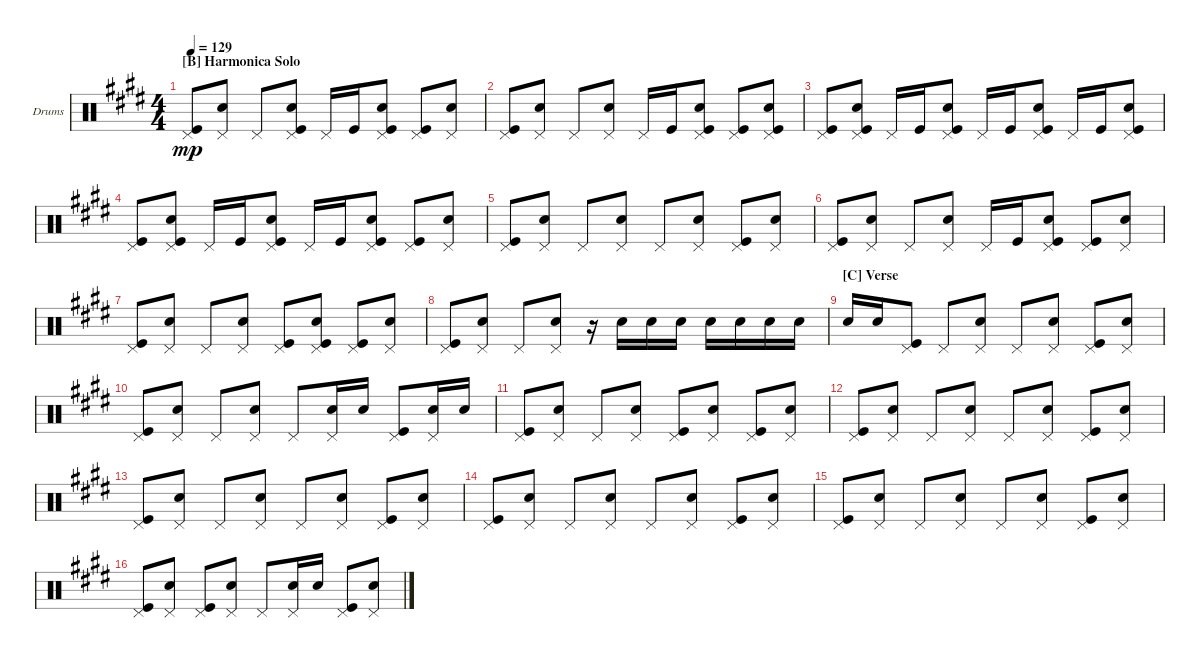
\defaultSystemsLayout 4
\bracketExtendMode groupsimilarinstruments
\firstSystemTrackNameOrientation horizontal
\otherSystemsTrackNameOrientation horizontal
\chordDiagramsInScore
\track ("Drumkit" "Drums") {instrument percussion}
\staff {score}
\articulation defaults
\ts (4 4)
\section ("B" "Harmonica Solo")
\tempo 129
\clef neutral
\ks c#minor
("Kick (hit)" "Pedal Hi-Hat (hit)").8{dy mp} ("Pedal Hi-Hat (hit)" "Snare (hit) 2").8 "Pedal Hi-Hat (hit)".8 ("Pedal Hi-Hat (hit)" "Snare (hit) 2" "Kick (hit)").8 "Pedal Hi-Hat (hit)".16 "Kick (hit)".16 ("Pedal Hi-Hat (hit)" "Snare (hit) 2" "Kick (hit)").8 ("Pedal Hi-Hat (hit)" "Kick (hit)").8 ("Pedal Hi-Hat (hit)" "Snare (hit) 2").8 |
("Kick (hit)" "Pedal Hi-Hat (hit)").8 ("Pedal Hi-Hat (hit)" "Snare (hit) 2").8 "Pedal Hi-Hat (hit)".8 ("Pedal Hi-Hat (hit)" "Snare (hit) 2").8 "Pedal Hi-Hat (hit)".16 "Kick (hit)".16 ("Pedal Hi-Hat (hit)" "Snare (hit) 2" "Kick (hit)").8 ("Pedal Hi-Hat (hit)" "Kick (hit)").8 ("Pedal Hi-Hat (hit)" "Snare (hit) 2" "Kick (hit)").8 |
("Kick (hit)" "Pedal Hi-Hat (hit)").8 ("Pedal Hi-Hat (hit)" "Snare (hit) 2" "Kick (hit)").8 "Pedal Hi-Hat (hit)".16 "Kick (hit)".16 ("Pedal Hi-Hat (hit)" "Snare (hit) 2" "Kick (hit)").8 "Pedal Hi-Hat (hit)".16 "Kick (hit)".16 ("Pedal Hi-Hat (hit)" "Snare (hit) 2" "Kick (hit)").8 "Pedal Hi-Hat (hit)".16 "Kick (hit)".16 ("Pedal Hi-Hat (hit)" "Snare (hit) 2" "Kick (hit)").8 |
("Kick (hit)" "Pedal Hi-Hat (hit)").8 ("Pedal Hi-Hat (hit)" "Snare (hit) 2" "Kick (hit)").8 "Pedal Hi-Hat (hit)".16 "Kick (hit)".16 ("Pedal Hi-Hat (hit)" "Snare (hit) 2" "Kick (hit)").8 "Pedal Hi-Hat (hit)".16 "Kick (hit)".16 ("Pedal Hi-Hat (hit)" "Snare (hit) 2" "Kick (hit)").8 ("Pedal Hi-Hat (hit)" "Kick (hit)").8 ("Pedal Hi-Hat (hit)" "Snare (hit) 2").8 |
("Kick (hit)" "Pedal Hi-Hat (hit)").8 ("Pedal Hi-Hat (hit)" "Snare (hit) 2").8 "Pedal Hi-Hat (hit)".8 ("Pedal Hi-Hat (hit)" "Snare (hit) 2").8 "Pedal Hi-Hat (hit)".8 ("Pedal Hi-Hat (hit)" "Snare (hit) 2").8 ("Pedal Hi-Hat (hit)" "Kick (hit)").8 ("Pedal Hi-Hat (hit)" "Snare (hit) 2").8 |
("Kick (hit)" "Pedal Hi-Hat (hit)").8 ("Pedal Hi-Hat (hit)" "Snare (hit) 2").8 "Pedal Hi-Hat (hit)".8 ("Pedal Hi-Hat (hit)" "Snare (hit) 2").8 "Pedal Hi-Hat (hit)".16 "Kick (hit)".16 ("Pedal Hi-Hat (hit)" "Snare (hit) 2" "Kick (hit)").8 ("Pedal Hi-Hat (hit)" "Kick (hit)").8 ("Pedal Hi-Hat (hit)" "Snare (hit) 2").8 |
("Kick (hit)" "Pedal Hi-Hat (hit)").8 ("Pedal Hi-Hat (hit)" "Snare (hit) 2").8 "Pedal Hi-Hat (hit)".8 ("Pedal Hi-Hat (hit)" "Snare (hit) 2").8 ("Pedal Hi-Hat (hit)" "Kick (hit)").8 ("Pedal Hi-Hat (hit)" "Snare (hit) 2" "Kick (hit)").8 ("Pedal Hi-Hat (hit)" "Kick (hit)").8 ("Pedal Hi-Hat (hit)" "Snare (hit) 2").8 |
("Kick (hit)" "Pedal Hi-Hat (hit)").8 ("Pedal Hi-Hat (hit)" "Snare (hit) 2").8 "Pedal Hi-Hat (hit)".8 ("Pedal Hi-Hat (hit)" "Snare (hit) 2").8 r.16 "Snare (hit) 2".16 "Snare (hit) 2".16 "Snare (hit) 2".16 "Snare (hit) 2".16 "Snare (hit) 2".16 "Snare (hit) 2".16 "Snare (hit) 2".16 |
\section ("C" "Verse")
"Snare (hit) 2".16 "Snare (hit) 2".16 ("Kick (hit)" "Pedal Hi-Hat (hit)").8 "Pedal Hi-Hat (hit)".8 ("Snare (hit) 2" "Pedal Hi-Hat (hit)").8 "Pedal Hi-Hat (hit)".8 ("Snare (hit) 2" "Pedal Hi-Hat (hit)").8 ("Kick (hit)" "Pedal Hi-Hat (hit)").8 ("Snare (hit) 2" "Pedal Hi-Hat (hit)").8 |
("Kick (hit)" "Pedal Hi-Hat (hit)").8 ("Pedal Hi-Hat (hit)" "Snare (hit) 2").8 "Pedal Hi-Hat (hit)".8 ("Pedal Hi-Hat (hit)" "Snare (hit) 2").8 "Pedal Hi-Hat (hit)".8 ("Pedal Hi-Hat (hit)" "Snare (hit) 2").16 "Snare (hit) 2".16 ("Pedal Hi-Hat (hit)" "Kick (hit)").8 ("Pedal Hi-Hat (hit)" "Snare (hit) 2").16 "Snare (hit) 2".16 |
("Kick (hit)" "Pedal Hi-Hat (hit)").8 ("Pedal Hi-Hat (hit)" "Snare (hit) 2").8 "Pedal Hi-Hat (hit)".8 ("Pedal Hi-Hat (hit)" "Snare (hit) 2").8 ("Pedal Hi-Hat (hit)" "Kick (hit)").8 ("Pedal Hi-Hat (hit)" "Snare (hit) 2").8 ("Pedal Hi-Hat (hit)" "Kick (hit)").8 ("Pedal Hi-Hat (hit)" "Snare (hit) 2").8 |
("Kick (hit)" "Pedal Hi-Hat (hit)").8 ("Pedal Hi-Hat (hit)" "Snare (hit) 2").8 "Pedal Hi-Hat (hit)".8 ("Pedal Hi-Hat (hit)" "Snare (hit) 2").8 "Pedal Hi-Hat (hit)".8 ("Pedal Hi-Hat (hit)" "Snare (hit) 2").8 ("Pedal Hi-Hat (hit)" "Kick (hit)").8 ("Pedal Hi-Hat (hit)" "Snare (hit) 2").8 |
("Kick (hit)" "Pedal Hi-Hat (hit)").8 ("Pedal Hi-Hat (hit)" "Snare (hit) 2").8 "Pedal Hi-Hat (hit)".8 ("Pedal Hi-Hat (hit)" "Snare (hit) 2").8 "Pedal Hi-Hat (hit)".8 ("Pedal Hi-Hat (hit)" "Snare (hit) 2").8 ("Pedal Hi-Hat (hit)" "Kick (hit)").8 ("Pedal Hi-Hat (hit)" "Snare (hit) 2").8 |
("Kick (hit)" "Pedal Hi-Hat (hit)").8 ("Pedal Hi-Hat (hit)" "Snare (hit) 2").8 "Pedal Hi-Hat (hit)".8 ("Pedal Hi-Hat (hit)" "Snare (hit) 2").8 "Pedal Hi-Hat (hit)".8 ("Pedal Hi-Hat (hit)" "Snare (hit) 2").8 ("Pedal Hi-Hat (hit)" "Kick (hit)").8 ("Pedal Hi-Hat (hit)" "Snare (hit) 2").8 |
("Kick (hit)" "Pedal Hi-Hat (hit)").8 ("Pedal Hi-Hat (hit)" "Snare (hit) 2").8 "Pedal Hi-Hat (hit)".8 ("Pedal Hi-Hat (hit)" "Snare (hit) 2").8 "Pedal Hi-Hat (hit)".8 ("Pedal Hi-Hat (hit)" "Snare (hit) 2").8 ("Pedal Hi-Hat (hit)" "Kick (hit)").8 ("Pedal Hi-Hat (hit)" "Snare (hit) 2").8 |
("Kick (hit)" "Pedal Hi-Hat (hit)").8 ("Pedal Hi-Hat (hit)" "Snare (hit) 2").8 ("Pedal Hi-Hat (hit)" "Kick (hit)").8 ("Pedal Hi-Hat (hit)" "Snare (hit) 2").8 "Pedal Hi-Hat (hit)".8 ("Pedal Hi-Hat (hit)" "Snare (hit) 2").16 "Snare (hit) 2".16 ("Pedal Hi-Hat (hit)" "Kick (hit)").8 ("Pedal Hi-Hat (hit)" "Snare (hit) 2").8
